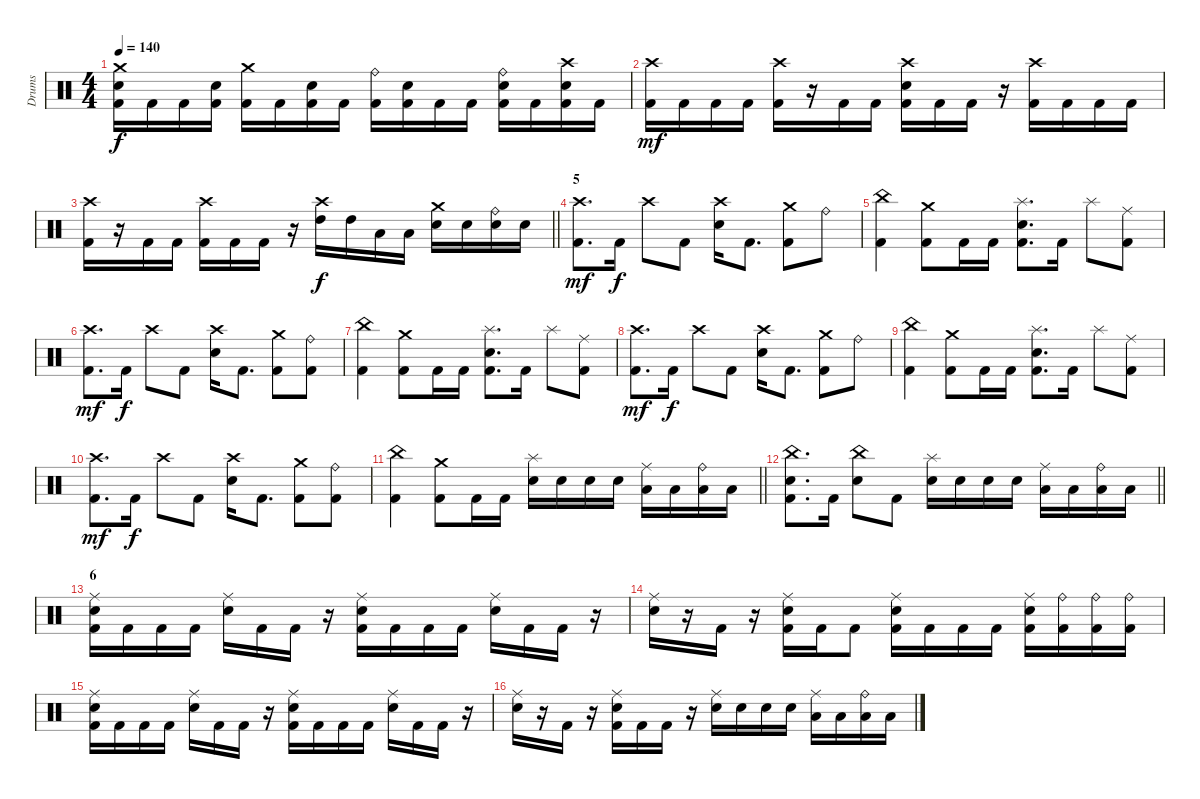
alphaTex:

\track ("Drums" "Drums") {instrument percussion}
\staff {score}
\articulation defaults
\ts (4 4)
\tempo 140
\clef neutral
\ks c
("Crash medium (hit)" "Electric Snare (hit)" "Kick (hit) 2").16{dy f} "Kick (hit) 2".16 "Kick (hit) 2".16 ("Electric Snare (hit)" "Kick (hit) 2").16 ("Crash medium (hit)" "Kick (hit) 2").16 "Kick (hit) 2".16 ("Electric Snare (hit)" "Kick (hit) 2").16 "Kick (hit) 2".16 ("Ride (bell)" "Kick (hit) 2").16 ("Electric Snare (hit)" "Kick (hit) 2").16 "Kick (hit) 2".16 "Kick (hit) 2".16 ("Ride (bell)" "Electric Snare (hit)" "Kick (hit) 2").16 "Kick (hit) 2".16 ("Crash high (hit)" "Electric Snare (hit)" "Kick (hit) 2").16 "Kick (hit) 2".16 |
("Crash high (hit)" "Kick (hit) 2").16{dy mf} "Kick (hit) 2".16 "Kick (hit) 2".16 "Kick (hit) 2".16 ("Crash high (hit)" "Kick (hit) 2").16 r.16 "Kick (hit) 2".16 "Kick (hit) 2".16 ("Crash high (hit)" "Electric Snare (hit)" "Kick (hit) 2").16 "Kick (hit) 2".16 "Kick (hit) 2".16 r.16 ("Crash high (hit)" "Kick (hit) 2").16 "Kick (hit) 2".16 "Kick (hit) 2".16 "Kick (hit) 2".16 |
\barLineRight lightlight
("Crash high (hit)" "Kick (hit) 2").16 r.16 "Kick (hit) 2".16 "Kick (hit) 2".16 ("Crash high (hit)" "Kick (hit) 2").16 "Kick (hit) 2".16 "Kick (hit) 2".16 r.16 ("Crash high (hit)" "High Tom (hit)").16{dy f} "High Tom (hit)".16 "Low Tom (hit)".16 "Low Tom (hit)".16 ("Crash medium (hit)" "Electric Snare (hit)").16 "Electric Snare (hit)".16 ("Ride (bell)" "Electric Snare (hit)").16 "Electric Snare (hit)".16 |
\section ("" "5")
("Crash high (hit)" "Kick (hit) 2").8{d dy mf} "Kick (hit) 2".16{dy f} "Crash high (hit)".8 "Kick (hit) 2".8 ("Crash high (hit)" "Electric Snare (hit)").16 "Kick (hit) 2".8{d} ("Crash medium (hit)" "Kick (hit) 2").8 "Ride (bell)".8 |
("Kick (hit) 2" "China (hit)").4 ("Crash medium (hit)" "Kick (hit) 2").8 "Kick (hit) 2".16 "Kick (hit) 2".16 ("Splash (hit)" "Electric Snare (hit)" "Kick (hit) 2").8{d} "Kick (hit) 2".16 "Splash (hit)".8 ("Ride (middle)" "Kick (hit) 2").8 |
("Crash high (hit)" "Kick (hit) 2").8{d dy mf} "Kick (hit) 2".16{dy f} "Crash high (hit)".8 "Kick (hit) 2".8 ("Crash high (hit)" "Electric Snare (hit)").16 "Kick (hit) 2".8{d} ("Crash medium (hit)" "Kick (hit) 2").8 ("Ride (bell)" "Kick (hit) 2").8 |
("Kick (hit) 2" "China (hit)").4 ("Crash medium (hit)" "Kick (hit) 2").8 "Kick (hit) 2".16 "Kick (hit) 2".16 ("Splash (hit)" "Electric Snare (hit)" "Kick (hit) 2").8{d} "Kick (hit) 2".16 "Splash (hit)".8 ("Ride (middle)" "Kick (hit) 2").8 |
("Crash high (hit)" "Kick (hit) 2").8{d dy mf} "Kick (hit) 2".16{dy f} "Crash high (hit)".8 "Kick (hit) 2".8 ("Crash high (hit)" "Electric Snare (hit)").16 "Kick (hit) 2".8{d} ("Crash medium (hit)" "Kick (hit) 2").8 "Ride (bell)".8 |
("Kick (hit) 2" "China (hit)").4 ("Crash medium (hit)" "Kick (hit) 2").8 "Kick (hit) 2".16 "Kick (hit) 2".16 ("Splash (hit)" "Electric Snare (hit)" "Kick (hit) 2").8{d} "Kick (hit) 2".16 "Splash (hit)".8 ("Ride (middle)" "Kick (hit) 2").8 |
("Crash high (hit)" "Kick (hit) 2").8{d dy mf} "Kick (hit) 2".16{dy f} "Crash high (hit)".8 "Kick (hit) 2".8 ("Crash high (hit)" "Electric Snare (hit)").16 "Kick (hit) 2".8{d} ("Crash medium (hit)" "Kick (hit) 2").8 ("Ride (bell)" "Kick (hit) 2").8 |
\barLineRight lightlight
("Kick (hit) 2" "China (hit)").4 ("Crash medium (hit)" "Kick (hit) 2").8 "Kick (hit) 2".16 "Kick (hit) 2".16 ("Splash (hit)" "Electric Snare (hit)").16 "Electric Snare (hit)".16 "Electric Snare (hit)".16 "Electric Snare (hit)".16 ("Ride (middle)" "Low Floor Tom (hit)").16 "Low Floor Tom (hit)".16 ("Ride (bell)" "Low Tom (hit)").16 "Low Tom (hit)".16 |
\barLineRight lightlight
("China (hit)" "Electric Snare (hit)" "Kick (hit) 2").8{d} "Kick (hit) 2".16 ("China (hit)" "Electric Snare (hit)").8 "Kick (hit) 2".8 ("Splash (hit)" "Electric Snare (hit)").16 "Electric Snare (hit)".16 "Electric Snare (hit)".16 "Electric Snare (hit)".16 ("Ride (middle)" "Low Floor Tom (hit)").16 "Low Floor Tom (hit)".16 ("Ride (bell)" "Low Tom (hit)").16 "Low Tom (hit)".16 |
\section ("" "6")
("Ride (middle)" "Electric Snare (hit)" "Kick (hit) 2").16 "Kick (hit) 2".16 "Kick (hit) 2".16 "Kick (hit) 2".16 ("Ride (middle)" "Electric Snare (hit)").16 "Kick (hit) 2".16 "Kick (hit) 2".16 r.16 ("Ride (middle)" "Electric Snare (hit)" "Kick (hit) 2").16 "Kick (hit) 2".16 "Kick (hit) 2".16 "Kick (hit) 2".16 ("Ride (middle)" "Electric Snare (hit)").16 "Kick (hit) 2".16 "Kick (hit) 2".16 r.16 |
("Ride (middle)" "Electric Snare (hit)").16 r.16 "Kick (hit) 2".16 r.16 ("Ride (middle)" "Electric Snare (hit)" "Kick (hit) 2").16 "Kick (hit) 2".16 "Kick (hit) 2".8 ("Ride (middle)" "Electric Snare (hit)" "Kick (hit) 2").16 "Kick (hit) 2".16 "Kick (hit) 2".16 "Kick (hit) 2".16 ("Ride (middle)" "Electric Snare (hit)" "Kick (hit) 2").16 ("Ride (bell)" "Kick (hit) 2").16 ("Ride (bell)" "Kick (hit) 2").16 ("Ride (bell)" "Kick (hit) 2").16 |
("Ride (middle)" "Electric Snare (hit)" "Kick (hit) 2").16 "Kick (hit) 2".16 "Kick (hit) 2".16 "Kick (hit) 2".16 ("Ride (middle)" "Electric Snare (hit)").16 "Kick (hit) 2".16 "Kick (hit) 2".16 r.16 ("Ride (middle)" "Electric Snare (hit)" "Kick (hit) 2").16 "Kick (hit) 2".16 "Kick (hit) 2".16 "Kick (hit) 2".16 ("Ride (middle)" "Electric Snare (hit)").16 "Kick (hit) 2".16 "Kick (hit) 2".16 r.16 |
("Ride (middle)" "Electric Snare (hit)").16 r.16 "Kick (hit) 2".16 r.16 ("Ride (middle)" "Electric Snare (hit)" "Kick (hit) 2").16 "Kick (hit) 2".16 "Kick (hit) 2".16 r.16 ("Ride (middle)" "Electric Snare (hit)").16 "Electric Snare (hit)".16 "Electric Snare (hit)".16 "Electric Snare (hit)".16 ("Ride (middle)" "Low Floor Tom (hit)").16 "Low Floor Tom (hit)".16 ("Ride (bell)" "Low Tom (hit)").16 "Low Tom (hit)".16
